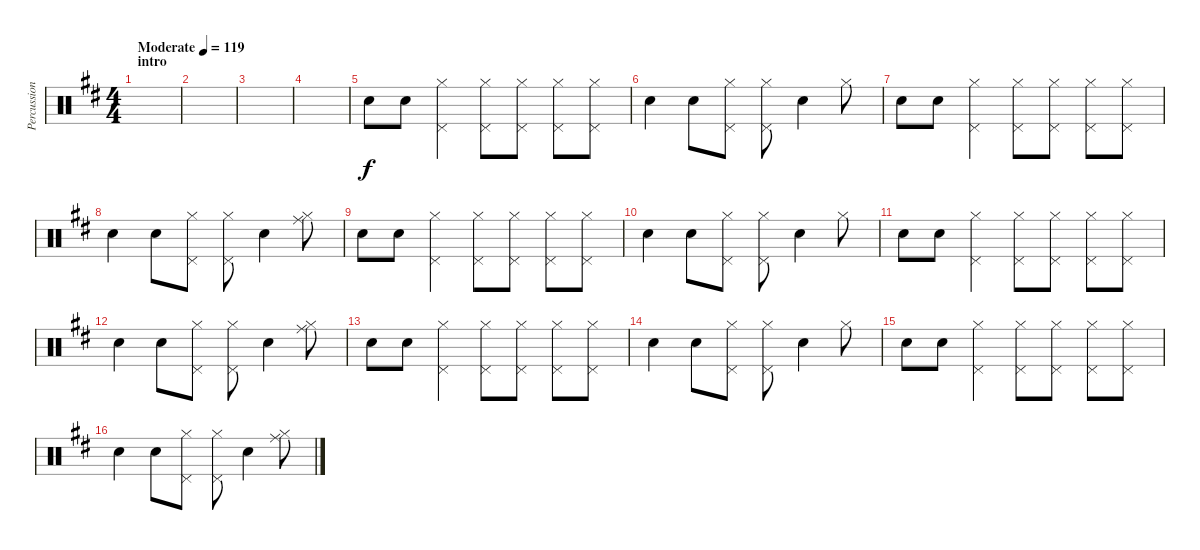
\track ("Percussion" "Percussion") {instrument percussion}
\staff {score}
\articulation defaults
\ts (4 4)
\section ("" "intro")
\tempo (119 "Moderate")
\clef neutral
\ks d
|
|
|
|
"Electric Snare (hit)".8 "Electric Snare (hit)".8 ("Pedal Hi-Hat (hit)" "Hi-Hat (closed)").4 ("Pedal Hi-Hat (hit)" "Hi-Hat (closed)").8 ("Pedal Hi-Hat (hit)" "Hi-Hat (closed)").8 ("Pedal Hi-Hat (hit)" "Hi-Hat (closed)").8 ("Pedal Hi-Hat (hit)" "Hi-Hat (closed)").8 |
"Electric Snare (hit)".4 "Electric Snare (hit)".8 ("Pedal Hi-Hat (hit)" "Hi-Hat (closed)").8 ("Pedal Hi-Hat (hit)" "Hi-Hat (closed)").8 "Electric Snare (hit)".4 "Hi-Hat (closed)".8 |
"Electric Snare (hit)".8 "Electric Snare (hit)".8 ("Pedal Hi-Hat (hit)" "Hi-Hat (closed)").4 ("Pedal Hi-Hat (hit)" "Hi-Hat (closed)").8 ("Pedal Hi-Hat (hit)" "Hi-Hat (closed)").8 ("Pedal Hi-Hat (hit)" "Hi-Hat (closed)").8 ("Pedal Hi-Hat (hit)" "Hi-Hat (closed)").8 |
"Electric Snare (hit)".4 "Electric Snare (hit)".8 ("Pedal Hi-Hat (hit)" "Hi-Hat (closed)").8 ("Pedal Hi-Hat (hit)" "Hi-Hat (closed)").8 "Electric Snare (hit)".4 ("Ride (middle)" "Hi-Hat (closed)").8 |
"Electric Snare (hit)".8 "Electric Snare (hit)".8 ("Pedal Hi-Hat (hit)" "Hi-Hat (closed)").4 ("Pedal Hi-Hat (hit)" "Hi-Hat (closed)").8 ("Pedal Hi-Hat (hit)" "Hi-Hat (closed)").8 ("Pedal Hi-Hat (hit)" "Hi-Hat (closed)").8 ("Pedal Hi-Hat (hit)" "Hi-Hat (closed)").8 |
"Electric Snare (hit)".4 "Electric Snare (hit)".8 ("Pedal Hi-Hat (hit)" "Hi-Hat (closed)").8 ("Pedal Hi-Hat (hit)" "Hi-Hat (closed)").8 "Electric Snare (hit)".4 "Hi-Hat (closed)".8 |
"Electric Snare (hit)".8 "Electric Snare (hit)".8 ("Pedal Hi-Hat (hit)" "Hi-Hat (closed)").4 ("Pedal Hi-Hat (hit)" "Hi-Hat (closed)").8 ("Pedal Hi-Hat (hit)" "Hi-Hat (closed)").8 ("Pedal Hi-Hat (hit)" "Hi-Hat (closed)").8 ("Pedal Hi-Hat (hit)" "Hi-Hat (closed)").8 |
"Electric Snare (hit)".4 "Electric Snare (hit)".8 ("Pedal Hi-Hat (hit)" "Hi-Hat (closed)").8 ("Pedal Hi-Hat (hit)" "Hi-Hat (closed)").8 "Electric Snare (hit)".4 ("Ride (middle)" "Hi-Hat (closed)").8 |
"Electric Snare (hit)".8 "Electric Snare (hit)".8 ("Pedal Hi-Hat (hit)" "Hi-Hat (closed)").4 ("Pedal Hi-Hat (hit)" "Hi-Hat (closed)").8 ("Pedal Hi-Hat (hit)" "Hi-Hat (closed)").8 ("Pedal Hi-Hat (hit)" "Hi-Hat (closed)").8 ("Pedal Hi-Hat (hit)" "Hi-Hat (closed)").8 |
"Electric Snare (hit)".4 "Electric Snare (hit)".8 ("Pedal Hi-Hat (hit)" "Hi-Hat (closed)").8 ("Pedal Hi-Hat (hit)" "Hi-Hat (closed)").8 "Electric Snare (hit)".4 "Hi-Hat (closed)".8 |
"Electric Snare (hit)".8 "Electric Snare (hit)".8 ("Pedal Hi-Hat (hit)" "Hi-Hat (closed)").4 ("Pedal Hi-Hat (hit)" "Hi-Hat (closed)").8 ("Pedal Hi-Hat (hit)" "Hi-Hat (closed)").8 ("Pedal Hi-Hat (hit)" "Hi-Hat (closed)").8 ("Pedal Hi-Hat (hit)" "Hi-Hat (closed)").8 |
"Electric Snare (hit)".4 "Electric Snare (hit)".8 ("Pedal Hi-Hat (hit)" "Hi-Hat (closed)").8 ("Pedal Hi-Hat (hit)" "Hi-Hat (closed)").8 "Electric Snare (hit)".4 ("Ride (middle)" "Hi-Hat (closed)").8
